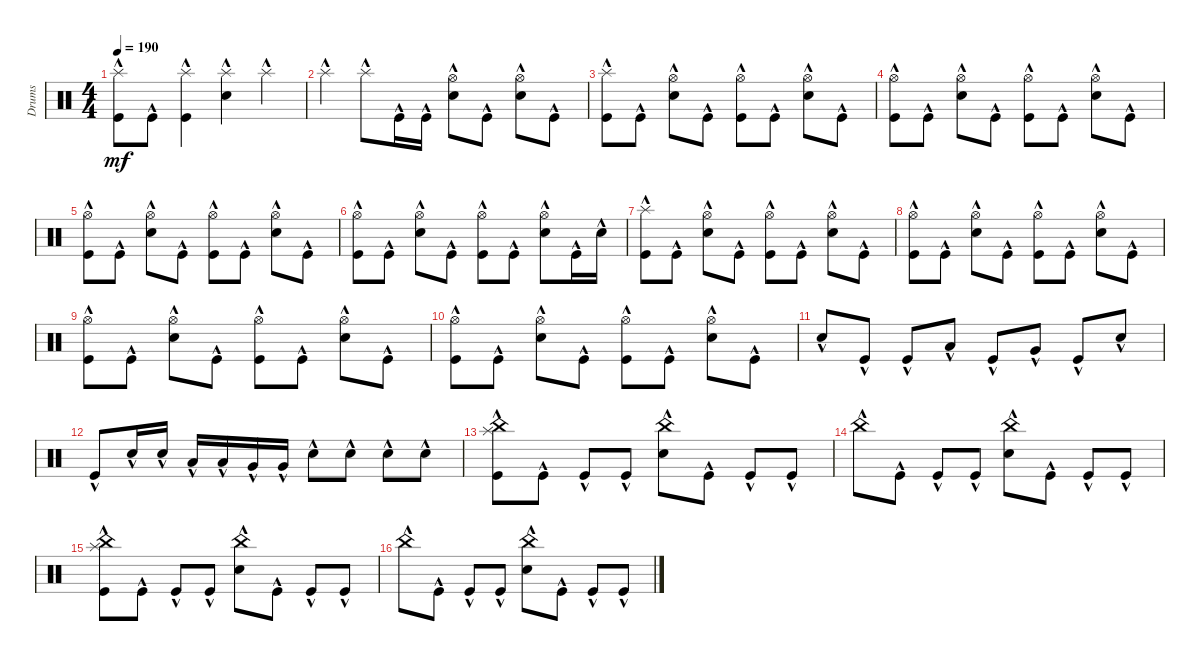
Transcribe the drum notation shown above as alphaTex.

\track ("Drums" "Drums") {instrument percussion}
\staff {score}
\articulation defaults
\ts (4 4)
\tempo 190
\clef neutral
\ks c
("Kick (hit)"{hac} "Splash (hit)"{hac}).8{dy mf} "Kick (hit)"{hac}.8 ("Kick (hit)"{hac} "Splash (hit)"{hac}).4 ("Splash (hit)"{hac} "Snare (hit) 2"{hac}).4 "Splash (hit)"{hac}.4 |
"Splash (hit)"{hac}.4 "Splash (hit)"{hac}.8 "Kick (hit)"{hac}.16 "Kick (hit)"{hac}.16 ("Snare (hit) 2"{hac} "Hi-Hat (open)"{hac}).8 "Kick (hit)"{hac}.8 ("Snare (hit) 2"{hac} "Hi-Hat (open)"{hac}).8 "Kick (hit)"{hac}.8 |
("Kick (hit)"{hac} "Splash (hit)"{hac}).8 "Kick (hit)"{hac}.8 ("Snare (hit) 2"{hac} "Hi-Hat (open)"{hac}).8 "Kick (hit)"{hac}.8 ("Kick (hit)"{hac} "Hi-Hat (open)"{hac}).8 "Kick (hit)"{hac}.8 ("Snare (hit) 2"{hac} "Hi-Hat (open)"{hac}).8 "Kick (hit)"{hac}.8 |
("Kick (hit)"{hac} "Hi-Hat (open)"{hac}).8 "Kick (hit)"{hac}.8 ("Snare (hit) 2"{hac} "Hi-Hat (open)"{hac}).8 "Kick (hit)"{hac}.8 ("Kick (hit)"{hac} "Hi-Hat (open)"{hac}).8 "Kick (hit)"{hac}.8 ("Snare (hit) 2"{hac} "Hi-Hat (open)"{hac}).8 "Kick (hit)"{hac}.8 |
("Kick (hit)"{hac} "Hi-Hat (open)"{hac}).8 "Kick (hit)"{hac}.8 ("Snare (hit) 2"{hac} "Hi-Hat (open)"{hac}).8 "Kick (hit)"{hac}.8 ("Kick (hit)"{hac} "Hi-Hat (open)"{hac}).8 "Kick (hit)"{hac}.8 ("Snare (hit) 2"{hac} "Hi-Hat (open)"{hac}).8 "Kick (hit)"{hac}.8 |
("Kick (hit)"{hac} "Hi-Hat (open)"{hac}).8 "Kick (hit)"{hac}.8 ("Snare (hit) 2"{hac} "Hi-Hat (open)"{hac}).8 "Kick (hit)"{hac}.8 ("Kick (hit)"{hac} "Hi-Hat (open)"{hac}).8 "Kick (hit)"{hac}.8 ("Snare (hit) 2"{hac} "Hi-Hat (open)"{hac}).8 "Kick (hit)"{hac}.16 "Snare (hit) 2"{hac}.16 |
("Kick (hit)"{hac} "Splash (hit)"{hac}).8 "Kick (hit)"{hac}.8 ("Snare (hit) 2"{hac} "Hi-Hat (open)"{hac}).8 "Kick (hit)"{hac}.8 ("Kick (hit)"{hac} "Hi-Hat (open)"{hac}).8 "Kick (hit)"{hac}.8 ("Snare (hit) 2"{hac} "Hi-Hat (open)"{hac}).8 "Kick (hit)"{hac}.8 |
("Kick (hit)"{hac} "Hi-Hat (open)"{hac}).8 "Kick (hit)"{hac}.8 ("Snare (hit) 2"{hac} "Hi-Hat (open)"{hac}).8 "Kick (hit)"{hac}.8 ("Kick (hit)"{hac} "Hi-Hat (open)"{hac}).8 "Kick (hit)"{hac}.8 ("Snare (hit) 2"{hac} "Hi-Hat (open)"{hac}).8 "Kick (hit)"{hac}.8 |
("Kick (hit)"{hac} "Hi-Hat (open)"{hac}).8 "Kick (hit)"{hac}.8 ("Snare (hit) 2"{hac} "Hi-Hat (open)"{hac}).8 "Kick (hit)"{hac}.8 ("Kick (hit)"{hac} "Hi-Hat (open)"{hac}).8 "Kick (hit)"{hac}.8 ("Snare (hit) 2"{hac} "Hi-Hat (open)"{hac}).8 "Kick (hit)"{hac}.8 |
("Kick (hit)"{hac} "Hi-Hat (open)"{hac}).8 "Kick (hit)"{hac}.8 ("Snare (hit) 2"{hac} "Hi-Hat (open)"{hac}).8 "Kick (hit)"{hac}.8 ("Kick (hit)"{hac} "Hi-Hat (open)"{hac}).8 "Kick (hit)"{hac}.8 ("Snare (hit) 2"{hac} "Hi-Hat (open)"{hac}).8 "Kick (hit)"{hac}.8 |
"Snare (hit) 2"{hac}.8 "Kick (hit)"{hac}.8 "Kick (hit)"{hac}.8 "Low Tom (hit)"{hac}.8 "Kick (hit)"{hac}.8 "Very Low Tom (hit)"{hac}.8 "Kick (hit)"{hac}.8 "Snare (hit) 2"{hac}.8 |
"Kick (hit)"{hac}.8 "Snare (hit) 2"{hac}.16 "Snare (hit) 2"{hac}.16 "Low Tom (hit)"{hac}.16 "Low Tom (hit)"{hac}.16 "Very Low Tom (hit)"{hac}.16 "Very Low Tom (hit)"{hac}.16 "Snare (hit) 2"{hac}.8 "Snare (hit) 2"{hac}.8 "Snare (hit) 2"{hac}.8 "Snare (hit) 2"{hac}.8 |
("Kick (hit)"{hac} "Splash (hit)"{hac} "China (hit)"{hac}).8 "Kick (hit)"{hac}.8 "Kick (hit)"{hac}.8 "Kick (hit)"{hac}.8 ("Snare (hit) 2"{hac} "China (hit)"{hac}).8 "Kick (hit)"{hac}.8 "Kick (hit)"{hac}.8 "Kick (hit)"{hac}.8 |
"China (hit)"{hac}.8 "Kick (hit)"{hac}.8 "Kick (hit)"{hac}.8 "Kick (hit)"{hac}.8 ("Snare (hit) 2"{hac} "China (hit)"{hac}).8 "Kick (hit)"{hac}.8 "Kick (hit)"{hac}.8 "Kick (hit)"{hac}.8 |
("Kick (hit)"{hac} "Splash (hit)"{hac} "China (hit)"{hac}).8 "Kick (hit)"{hac}.8 "Kick (hit)"{hac}.8 "Kick (hit)"{hac}.8 ("Snare (hit) 2"{hac} "China (hit)"{hac}).8 "Kick (hit)"{hac}.8 "Kick (hit)"{hac}.8 "Kick (hit)"{hac}.8 |
"China (hit)"{hac}.8 "Kick (hit)"{hac}.8 "Kick (hit)"{hac}.8 "Kick (hit)"{hac}.8 ("Snare (hit) 2"{hac} "China (hit)"{hac}).8 "Kick (hit)"{hac}.8 "Kick (hit)"{hac}.8 "Kick (hit)"{hac}.8
